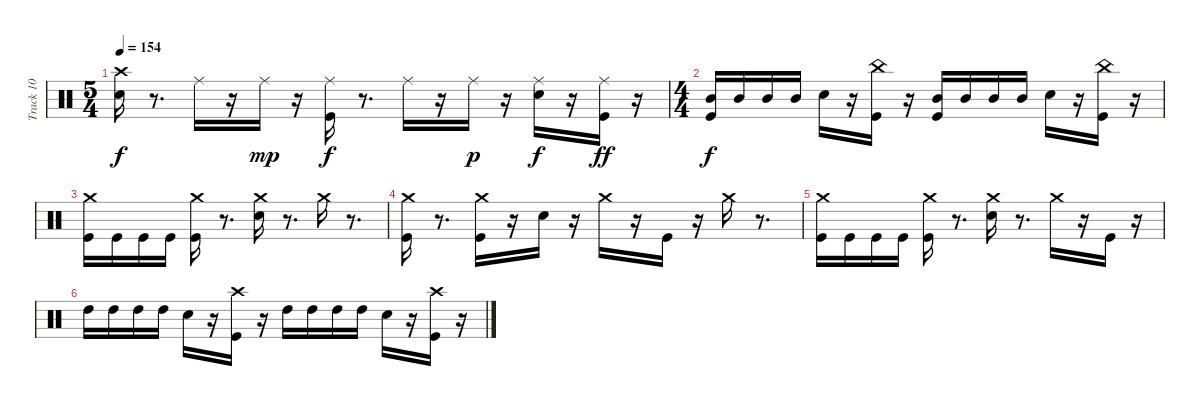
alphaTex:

\track ("Track 10" "Track 10") {instrument percussion}
\staff {score}
\articulation defaults
\ts (5 4)
\tempo 154
\clef neutral
\ks c
("Snare (hit) 2" "Crash high (hit)").16{dy f} r.8{d} "Ride (middle)".16 r.16 "Ride (middle)".16{dy mp} r.16 ("Kick (hit)" "Ride (middle)").16{dy f} r.8{d} "Ride (middle)".16 r.16 "Ride (middle)".16{dy p} r.16 ("Snare (hit) 2" "Ride (middle)").16{dy f} r.16 ("Kick (hit)" "Ride (middle)").16{dy ff} r.16 |
\ts (4 4)
("Kick (hit)" "Mid Tom (hit)").16{dy f} "Mid Tom (hit)".16 "Mid Tom (hit)".16 "Mid Tom (hit)".16 "Snare (hit) 2".16 r.16 ("Kick (hit)" "China (hit)").16 r.16 ("Kick (hit)" "Mid Tom (hit)").16 "Mid Tom (hit)".16 "Mid Tom (hit)".16 "Mid Tom (hit)".16 "Snare (hit) 2".16 r.16 ("Kick (hit)" "China (hit)").16 r.16 |
("Kick (hit)" "Crash medium (hit)").16 "Kick (hit)".16 "Kick (hit)".16 "Kick (hit)".16 ("Kick (hit)" "Crash medium (hit)").16 r.8{d} ("Snare (hit) 2" "Crash medium (hit)").16 r.8{d} "Crash medium (hit)".16 r.8{d} |
("Kick (hit)" "Crash medium (hit)").16 r.8{d} ("Kick (hit)" "Crash medium (hit)").16 r.16 "Snare (hit) 2".16 r.16 "Crash medium (hit)".16 r.16 "Kick (hit)".16 r.16 "Crash medium (hit)".16 r.8{d} |
("Kick (hit)" "Crash medium (hit)").16 "Kick (hit)".16 "Kick (hit)".16 "Kick (hit)".16 ("Kick (hit)" "Crash medium (hit)").16 r.8{d} ("Snare (hit) 2" "Crash medium (hit)").16 r.8{d} "Crash medium (hit)".16 r.16 "Kick (hit)".16 r.16 |
"High Tom (hit)".16 "High Tom (hit)".16 "High Tom (hit)".16 "High Tom (hit)".16 "Snare (hit) 2".16 r.16 ("Kick (hit)" "Crash high (hit)").16 r.16 "High Tom (hit)".16 "High Tom (hit)".16 "High Tom (hit)".16 "High Tom (hit)".16 "Snare (hit) 2".16 r.16 ("Kick (hit)" "Crash high (hit)").16 r.16
